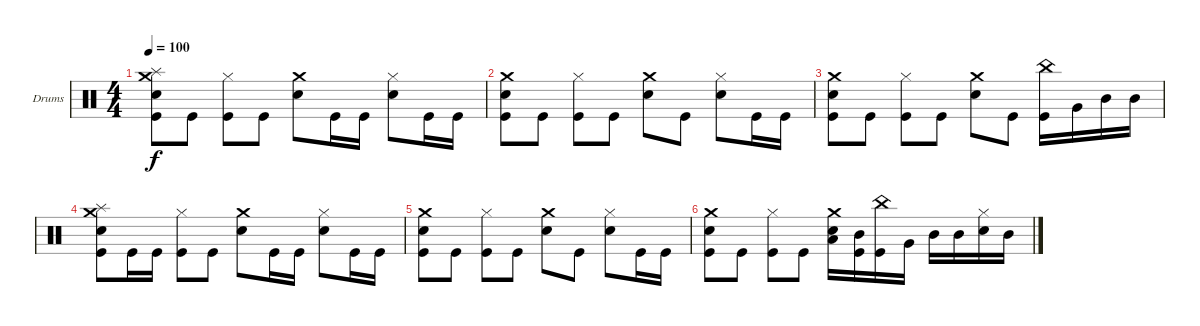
\defaultSystemsLayout 4
\bracketExtendMode groupsimilarinstruments
\firstSystemTrackNameOrientation horizontal
\otherSystemsTrackNameOrientation horizontal
\track ("Drumkit" "Drums") {instrument percussion}
\staff {score}
\articulation defaults
\ts (4 4)
\tempo 100
\clef neutral
\scale
0.641509
\ks c
("Kick (hit)" "Splash (hit)" "Snare (hit) 2" "Crash medium (hit)").8{dy f} "Kick (hit)".8 ("Kick (hit)" "Hi-Hat (closed)").8 "Kick (hit)".8 ("Crash medium (hit)" "Snare (hit) 2").8 "Kick (hit)".16 "Kick (hit)".16 ("Snare (hit) 2" "Hi-Hat (closed)").8 "Kick (hit)".16 "Kick (hit)".16 |
\scale
0.358491 ("Kick (hit)" "Snare (hit) 2" "Crash medium (hit)").8 "Kick (hit)".8 ("Kick (hit)" "Hi-Hat (closed)").8 "Kick (hit)".8 ("Crash medium (hit)" "Snare (hit) 2").8 "Kick (hit)".8 ("Snare (hit) 2" "Hi-Hat (closed)").8 "Kick (hit)".16 "Kick (hit)".16 |
\scale
0.5 ("Kick (hit)" "Snare (hit) 2" "Crash medium (hit)").8 "Kick (hit)".8 ("Kick (hit)" "Hi-Hat (closed)").8 "Kick (hit)".8 ("Crash medium (hit)" "Snare (hit) 2").8 "Kick (hit)".8 ("Kick (hit)" "China (hit)").16 "Very Low Tom (hit)".16 "Mid Tom (hit)".16 "Mid Tom (hit)".16 |
\scale
0.5 ("Kick (hit)" "Splash (hit)" "Snare (hit) 2" "Crash medium (hit)").8 "Kick (hit)".16 "Kick (hit)".16 ("Kick (hit)" "Hi-Hat (closed)").8 "Kick (hit)".8 ("Crash medium (hit)" "Snare (hit) 2").8 "Kick (hit)".16 "Kick (hit)".16 ("Snare (hit) 2" "Hi-Hat (closed)").8 "Kick (hit)".16 "Kick (hit)".16 |
\scale
0.5 ("Kick (hit)" "Snare (hit) 2" "Crash medium (hit)").8 "Kick (hit)".8 ("Kick (hit)" "Hi-Hat (closed)").8 "Kick (hit)".8 ("Crash medium (hit)" "Snare (hit) 2").8 "Kick (hit)".8 ("Snare (hit) 2" "Hi-Hat (closed)").8 "Kick (hit)".16 "Kick (hit)".16 |
\scale
0.5 ("Kick (hit)" "Snare (hit) 2" "Crash medium (hit)").8 "Kick (hit)".8 ("Kick (hit)" "Hi-Hat (closed)").8 "Kick (hit)".8 ("Crash medium (hit)" "Snare (hit) 2" "Low Tom (hit)").16 ("Kick (hit)" "Mid Tom (hit)").16 ("Kick (hit)" "China (hit)").16 "Very Low Tom (hit)".16 "Mid Tom (hit)".16 "Mid Tom (hit)".16 ("Snare (hit) 2" "Hi-Hat (closed)").16 "Mid Tom (hit)".16
